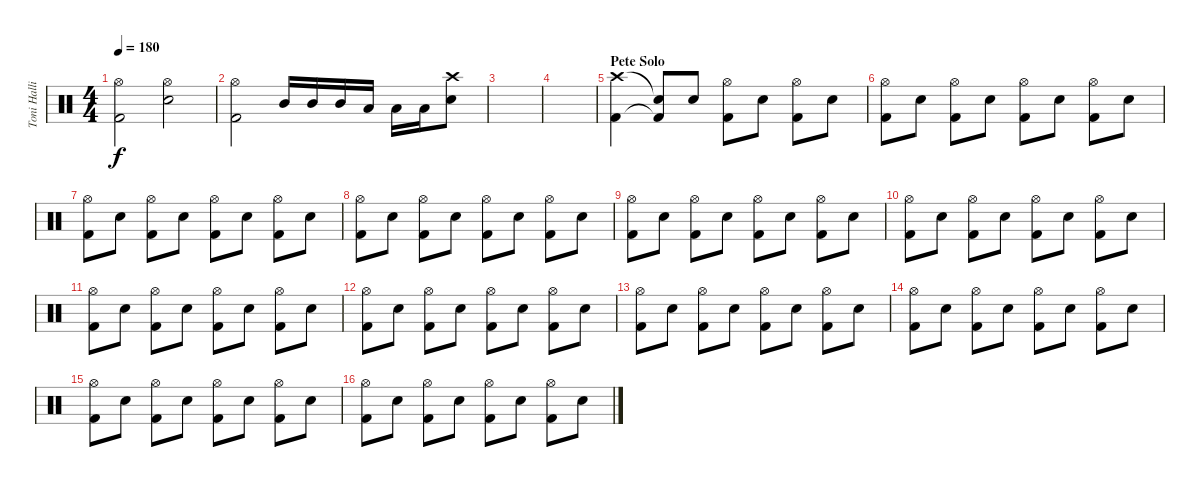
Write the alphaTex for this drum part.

\track ("Toni Hallio" "Toni Halli") {instrument percussion}
\staff {score}
\articulation defaults
\ts (4 4)
\tempo 180
\clef neutral
\ks c
("Hi-Hat (open)" "Kick (hit) 2").2{dy f} ("Hi-Hat (open)" "Electric Snare (hit)").2 |
("Hi-Hat (open)" "Kick (hit) 2").2 "Mid Tom (hit)".16 "Mid Tom (hit)".16 "Mid Tom (hit)".16 "Low Tom (hit)".16 "Low Tom (hit)".16 "Low Tom (hit)".16 ("Crash high (hit)" "Electric Snare (hit)").8 |
|
|
\section ("" "Pete Solo")
("Crash high (hit)" "Kick (hit) 2").4 ("Snare (hit)"{t} "Kick (hit) 2"{t}).8 "Electric Snare (hit)".8 ("Hi-Hat (open)" "Kick (hit) 2").8 "Electric Snare (hit)".8 ("Hi-Hat (open)" "Kick (hit) 2").8 "Electric Snare (hit)".8 |
("Hi-Hat (open)" "Kick (hit) 2").8 "Electric Snare (hit)".8 ("Hi-Hat (open)" "Kick (hit) 2").8 "Electric Snare (hit)".8 ("Hi-Hat (open)" "Kick (hit) 2").8 "Electric Snare (hit)".8 ("Hi-Hat (open)" "Kick (hit) 2").8 "Electric Snare (hit)".8 |
("Hi-Hat (open)" "Kick (hit) 2").8 "Electric Snare (hit)".8 ("Hi-Hat (open)" "Kick (hit) 2").8 "Electric Snare (hit)".8 ("Hi-Hat (open)" "Kick (hit) 2").8 "Electric Snare (hit)".8 ("Hi-Hat (open)" "Kick (hit) 2").8 "Electric Snare (hit)".8 |
("Hi-Hat (open)" "Kick (hit) 2").8 "Electric Snare (hit)".8 ("Hi-Hat (open)" "Kick (hit) 2").8 "Electric Snare (hit)".8 ("Hi-Hat (open)" "Kick (hit) 2").8 "Electric Snare (hit)".8 ("Hi-Hat (open)" "Kick (hit) 2").8 "Electric Snare (hit)".8 |
("Hi-Hat (open)" "Kick (hit) 2").8 "Electric Snare (hit)".8 ("Hi-Hat (open)" "Kick (hit) 2").8 "Electric Snare (hit)".8 ("Hi-Hat (open)" "Kick (hit) 2").8 "Electric Snare (hit)".8 ("Hi-Hat (open)" "Kick (hit) 2").8 "Electric Snare (hit)".8 |
("Hi-Hat (open)" "Kick (hit) 2").8 "Electric Snare (hit)".8 ("Hi-Hat (open)" "Kick (hit) 2").8 "Electric Snare (hit)".8 ("Hi-Hat (open)" "Kick (hit) 2").8 "Electric Snare (hit)".8 ("Hi-Hat (open)" "Kick (hit) 2").8 "Electric Snare (hit)".8 |
("Hi-Hat (open)" "Kick (hit) 2").8 "Electric Snare (hit)".8 ("Hi-Hat (open)" "Kick (hit) 2").8 "Electric Snare (hit)".8 ("Hi-Hat (open)" "Kick (hit) 2").8 "Electric Snare (hit)".8 ("Hi-Hat (open)" "Kick (hit) 2").8 "Electric Snare (hit)".8 |
("Hi-Hat (open)" "Kick (hit) 2").8 "Electric Snare (hit)".8 ("Hi-Hat (open)" "Kick (hit) 2").8 "Electric Snare (hit)".8 ("Hi-Hat (open)" "Kick (hit) 2").8 "Electric Snare (hit)".8 ("Hi-Hat (open)" "Kick (hit) 2").8 "Electric Snare (hit)".8 |
("Hi-Hat (open)" "Kick (hit) 2").8 "Electric Snare (hit)".8 ("Hi-Hat (open)" "Kick (hit) 2").8 "Electric Snare (hit)".8 ("Hi-Hat (open)" "Kick (hit) 2").8 "Electric Snare (hit)".8 ("Hi-Hat (open)" "Kick (hit) 2").8 "Electric Snare (hit)".8 |
("Hi-Hat (open)" "Kick (hit) 2").8 "Electric Snare (hit)".8 ("Hi-Hat (open)" "Kick (hit) 2").8 "Electric Snare (hit)".8 ("Hi-Hat (open)" "Kick (hit) 2").8 "Electric Snare (hit)".8 ("Hi-Hat (open)" "Kick (hit) 2").8 "Electric Snare (hit)".8 |
("Hi-Hat (open)" "Kick (hit) 2").8 "Electric Snare (hit)".8 ("Hi-Hat (open)" "Kick (hit) 2").8 "Electric Snare (hit)".8 ("Hi-Hat (open)" "Kick (hit) 2").8 "Electric Snare (hit)".8 ("Hi-Hat (open)" "Kick (hit) 2").8 "Electric Snare (hit)".8 |
("Hi-Hat (open)" "Kick (hit) 2").8 "Electric Snare (hit)".8 ("Hi-Hat (open)" "Kick (hit) 2").8 "Electric Snare (hit)".8 ("Hi-Hat (open)" "Kick (hit) 2").8 "Electric Snare (hit)".8 ("Hi-Hat (open)" "Kick (hit) 2").8 "Electric Snare (hit)".8
